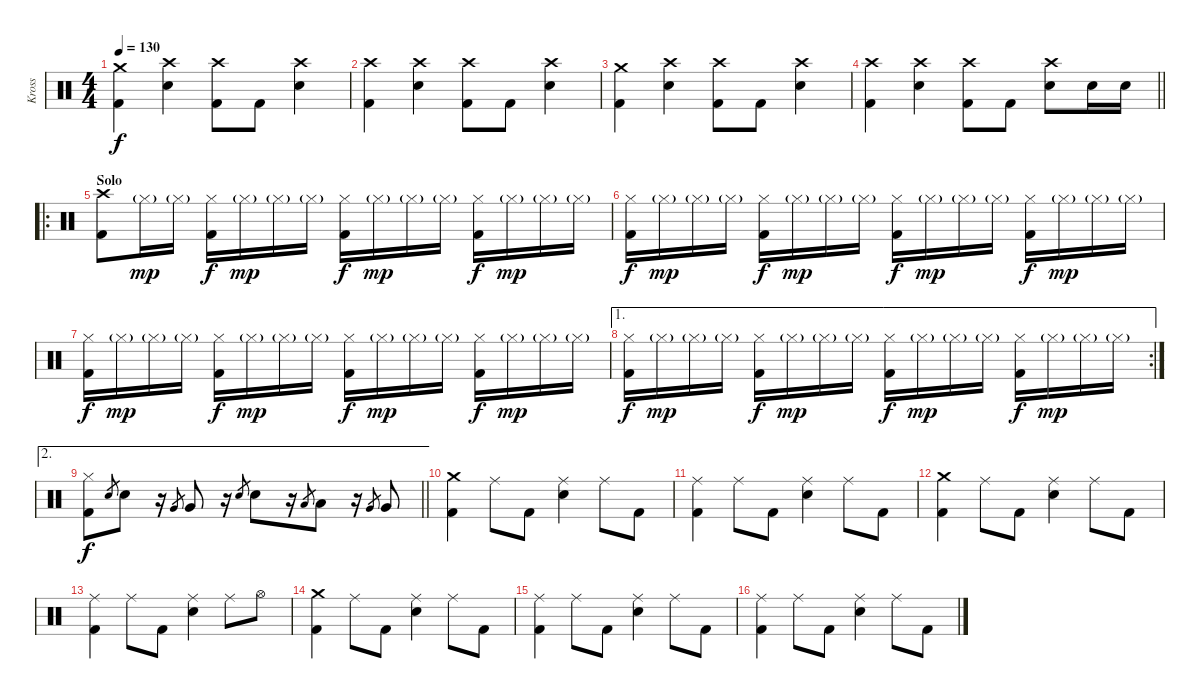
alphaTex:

\track ("Kross" "Kross") {instrument percussion}
\staff {score}
\articulation defaults
\ts (4 4)
\tempo 130
\clef neutral
\ks c
("Crash medium (hit)" "Kick (hit) 2").4{dy f} ("Crash high (hit)" "Electric Snare (hit)").4 ("Crash high (hit)" "Kick (hit) 2").8 "Kick (hit) 2".8 ("Crash high (hit)" "Electric Snare (hit)").4 |
("Crash high (hit)" "Kick (hit) 2").4 ("Crash high (hit)" "Electric Snare (hit)").4 ("Crash high (hit)" "Kick (hit) 2").8 "Kick (hit) 2".8 ("Crash high (hit)" "Electric Snare (hit)").4 |
("Crash medium (hit)" "Kick (hit) 2").4 ("Crash high (hit)" "Electric Snare (hit)").4 ("Crash high (hit)" "Kick (hit) 2").8 "Kick (hit) 2".8 ("Crash high (hit)" "Electric Snare (hit)").4 |
\barLineRight lightlight
("Crash high (hit)" "Kick (hit) 2").4 ("Crash high (hit)" "Electric Snare (hit)").4 ("Crash high (hit)" "Kick (hit) 2").8 "Kick (hit) 2".8 ("Crash high (hit)" "Electric Snare (hit)").8 "Electric Snare (hit)".16 "Electric Snare (hit)".16 |
\ro
\section ("" "Solo")
("Crash high (hit)" "Kick (hit) 2").8 "Hi-Hat (closed)"{g}.16{dy mp} "Hi-Hat (closed)"{g}.16 ("Hi-Hat (closed)" "Kick (hit) 2").16{dy f} "Hi-Hat (closed)"{g}.16{dy mp} "Hi-Hat (closed)"{g}.16 "Hi-Hat (closed)"{g}.16 ("Hi-Hat (closed)" "Kick (hit) 2").16{dy f} "Hi-Hat (closed)"{g}.16{dy mp} "Hi-Hat (closed)"{g}.16 "Hi-Hat (closed)"{g}.16 ("Hi-Hat (closed)" "Kick (hit) 2").16{dy f} "Hi-Hat (closed)"{g}.16{dy mp} "Hi-Hat (closed)"{g}.16 "Hi-Hat (closed)"{g}.16 |
("Hi-Hat (closed)" "Kick (hit) 2").16{dy f} "Hi-Hat (closed)"{g}.16{dy mp} "Hi-Hat (closed)"{g}.16 "Hi-Hat (closed)"{g}.16 ("Hi-Hat (closed)" "Kick (hit) 2").16{dy f} "Hi-Hat (closed)"{g}.16{dy mp} "Hi-Hat (closed)"{g}.16 "Hi-Hat (closed)"{g}.16 ("Hi-Hat (closed)" "Kick (hit) 2").16{dy f} "Hi-Hat (closed)"{g}.16{dy mp} "Hi-Hat (closed)"{g}.16 "Hi-Hat (closed)"{g}.16 ("Hi-Hat (closed)" "Kick (hit) 2").16{dy f} "Hi-Hat (closed)"{g}.16{dy mp} "Hi-Hat (closed)"{g}.16 "Hi-Hat (closed)"{g}.16 |
("Hi-Hat (closed)" "Kick (hit) 2").16{dy f} "Hi-Hat (closed)"{g}.16{dy mp} "Hi-Hat (closed)"{g}.16 "Hi-Hat (closed)"{g}.16 ("Hi-Hat (closed)" "Kick (hit) 2").16{dy f} "Hi-Hat (closed)"{g}.16{dy mp} "Hi-Hat (closed)"{g}.16 "Hi-Hat (closed)"{g}.16 ("Hi-Hat (closed)" "Kick (hit) 2").16{dy f} "Hi-Hat (closed)"{g}.16{dy mp} "Hi-Hat (closed)"{g}.16 "Hi-Hat (closed)"{g}.16 ("Hi-Hat (closed)" "Kick (hit) 2").16{dy f} "Hi-Hat (closed)"{g}.16{dy mp} "Hi-Hat (closed)"{g}.16 "Hi-Hat (closed)"{g}.16 |
\ae 1
\rc 2
("Hi-Hat (closed)" "Kick (hit) 2").16{dy f} "Hi-Hat (closed)"{g}.16{dy mp} "Hi-Hat (closed)"{g}.16 "Hi-Hat (closed)"{g}.16 ("Hi-Hat (closed)" "Kick (hit) 2").16{dy f} "Hi-Hat (closed)"{g}.16{dy mp} "Hi-Hat (closed)"{g}.16 "Hi-Hat (closed)"{g}.16 ("Hi-Hat (closed)" "Kick (hit) 2").16{dy f} "Hi-Hat (closed)"{g}.16{dy mp} "Hi-Hat (closed)"{g}.16 "Hi-Hat (closed)"{g}.16 ("Hi-Hat (closed)" "Kick (hit) 2").16{dy f} "Hi-Hat (closed)"{g}.16{dy mp} "Hi-Hat (closed)"{g}.16 "Hi-Hat (closed)"{g}.16 |
\ae 2
\barLineRight lightlight
("Hi-Hat (closed)" "Kick (hit) 2").8{dy f} "Electric Snare (hit)".8{gr} "Electric Snare (hit)".8 r.16 "Very Low Tom (hit)".8{gr} "Very Low Tom (hit)".8 r.16 "Electric Snare (hit)".8{gr} "Electric Snare (hit)".8 r.16 "Low Tom (hit)".8{gr} "Low Tom (hit)".8 r.16 "Very Low Tom (hit)".8{gr} "Very Low Tom (hit)".8 |
("Crash medium (hit)" "Kick (hit) 2").4 "Ride (middle)".8 "Kick (hit) 2".8 ("Ride (middle)" "Electric Snare (hit)").4 "Ride (middle)".8 "Kick (hit) 2".8 |
("Ride (middle)" "Kick (hit) 2").4 "Ride (middle)".8 "Kick (hit) 2".8 ("Ride (middle)" "Electric Snare (hit)").4 "Ride (middle)".8 "Kick (hit) 2".8 |
("Crash medium (hit)" "Kick (hit) 2").4 "Ride (middle)".8 "Kick (hit) 2".8 ("Ride (middle)" "Electric Snare (hit)").4 "Ride (middle)".8 "Kick (hit) 2".8 |
("Ride (middle)" "Kick (hit) 2").4 "Ride (middle)".8 "Kick (hit) 2".8 ("Ride (middle)" "Electric Snare (hit)").4 "Ride (middle)".8 "Hi-Hat (open)".8 |
("Crash medium (hit)" "Kick (hit) 2").4 "Ride (middle)".8 "Kick (hit) 2".8 ("Ride (middle)" "Electric Snare (hit)").4 "Ride (middle)".8 "Kick (hit) 2".8 |
("Ride (middle)" "Kick (hit) 2").4 "Ride (middle)".8 "Kick (hit) 2".8 ("Ride (middle)" "Electric Snare (hit)").4 "Ride (middle)".8 "Kick (hit) 2".8 |
("Ride (middle)" "Kick (hit) 2").4 "Ride (middle)".8 "Kick (hit) 2".8 ("Ride (middle)" "Electric Snare (hit)").4 "Ride (middle)".8 "Kick (hit) 2".8
